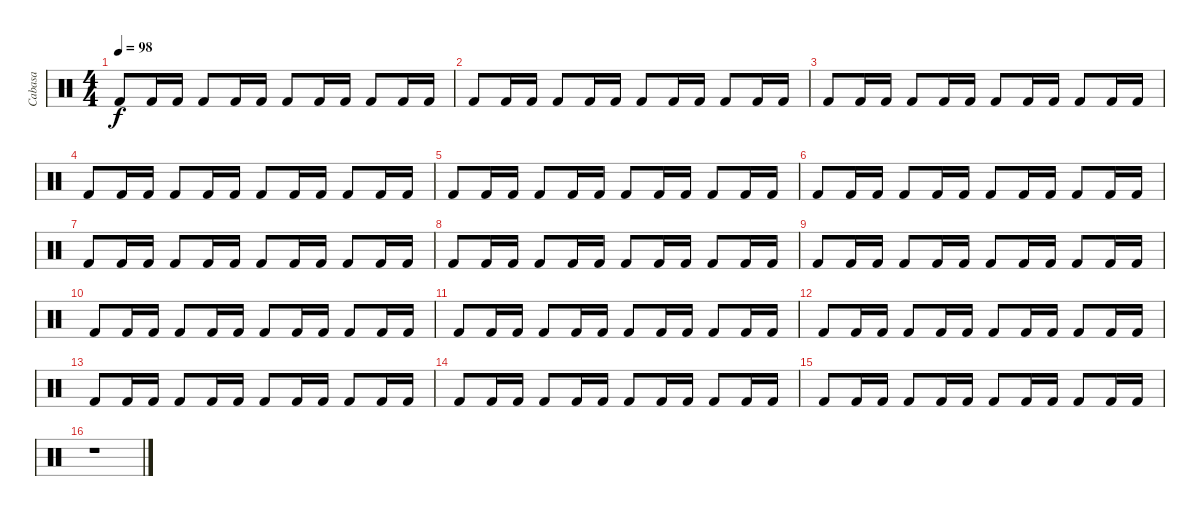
\track ("Cabasa" "Cabasa") {instrument percussion}
\staff {score}
\articulation defaults
\ts (4 4)
\tempo 98
\clef neutral
\ks c "Kick (hit) 2".8{dy f} "Kick (hit) 2".16 "Kick (hit) 2".16 "Kick (hit) 2".8 "Kick (hit) 2".16 "Kick (hit) 2".16 "Kick (hit) 2".8 "Kick (hit) 2".16 "Kick (hit) 2".16 "Kick (hit) 2".8 "Kick (hit) 2".16 "Kick (hit) 2".16
|
"Kick (hit) 2".8 "Kick (hit) 2".16 "Kick (hit) 2".16 "Kick (hit) 2".8 "Kick (hit) 2".16 "Kick (hit) 2".16 "Kick (hit) 2".8 "Kick (hit) 2".16 "Kick (hit) 2".16 "Kick (hit) 2".8 "Kick (hit) 2".16 "Kick (hit) 2".16 |
"Kick (hit) 2".8 "Kick (hit) 2".16 "Kick (hit) 2".16 "Kick (hit) 2".8 "Kick (hit) 2".16 "Kick (hit) 2".16 "Kick (hit) 2".8 "Kick (hit) 2".16 "Kick (hit) 2".16 "Kick (hit) 2".8 "Kick (hit) 2".16 "Kick (hit) 2".16 |
"Kick (hit) 2".8 "Kick (hit) 2".16 "Kick (hit) 2".16 "Kick (hit) 2".8 "Kick (hit) 2".16 "Kick (hit) 2".16 "Kick (hit) 2".8 "Kick (hit) 2".16 "Kick (hit) 2".16 "Kick (hit) 2".8 "Kick (hit) 2".16 "Kick (hit) 2".16 |
"Kick (hit) 2".8 "Kick (hit) 2".16 "Kick (hit) 2".16 "Kick (hit) 2".8 "Kick (hit) 2".16 "Kick (hit) 2".16 "Kick (hit) 2".8 "Kick (hit) 2".16 "Kick (hit) 2".16 "Kick (hit) 2".8 "Kick (hit) 2".16 "Kick (hit) 2".16 |
"Kick (hit) 2".8 "Kick (hit) 2".16 "Kick (hit) 2".16 "Kick (hit) 2".8 "Kick (hit) 2".16 "Kick (hit) 2".16 "Kick (hit) 2".8 "Kick (hit) 2".16 "Kick (hit) 2".16 "Kick (hit) 2".8 "Kick (hit) 2".16 "Kick (hit) 2".16 |
"Kick (hit) 2".8 "Kick (hit) 2".16 "Kick (hit) 2".16 "Kick (hit) 2".8 "Kick (hit) 2".16 "Kick (hit) 2".16 "Kick (hit) 2".8 "Kick (hit) 2".16 "Kick (hit) 2".16 "Kick (hit) 2".8 "Kick (hit) 2".16 "Kick (hit) 2".16 |
"Kick (hit) 2".8 "Kick (hit) 2".16 "Kick (hit) 2".16 "Kick (hit) 2".8 "Kick (hit) 2".16 "Kick (hit) 2".16 "Kick (hit) 2".8 "Kick (hit) 2".16 "Kick (hit) 2".16 "Kick (hit) 2".8 "Kick (hit) 2".16 "Kick (hit) 2".16 |
"Kick (hit) 2".8 "Kick (hit) 2".16 "Kick (hit) 2".16 "Kick (hit) 2".8 "Kick (hit) 2".16 "Kick (hit) 2".16 "Kick (hit) 2".8 "Kick (hit) 2".16 "Kick (hit) 2".16 "Kick (hit) 2".8 "Kick (hit) 2".16 "Kick (hit) 2".16 |
"Kick (hit) 2".8 "Kick (hit) 2".16 "Kick (hit) 2".16 "Kick (hit) 2".8 "Kick (hit) 2".16 "Kick (hit) 2".16 "Kick (hit) 2".8 "Kick (hit) 2".16 "Kick (hit) 2".16 "Kick (hit) 2".8 "Kick (hit) 2".16 "Kick (hit) 2".16 |
"Kick (hit) 2".8 "Kick (hit) 2".16 "Kick (hit) 2".16 "Kick (hit) 2".8 "Kick (hit) 2".16 "Kick (hit) 2".16 "Kick (hit) 2".8 "Kick (hit) 2".16 "Kick (hit) 2".16 "Kick (hit) 2".8 "Kick (hit) 2".16 "Kick (hit) 2".16 |
"Kick (hit) 2".8 "Kick (hit) 2".16 "Kick (hit) 2".16 "Kick (hit) 2".8 "Kick (hit) 2".16 "Kick (hit) 2".16 "Kick (hit) 2".8 "Kick (hit) 2".16 "Kick (hit) 2".16 "Kick (hit) 2".8 "Kick (hit) 2".16 "Kick (hit) 2".16 |
"Kick (hit) 2".8 "Kick (hit) 2".16 "Kick (hit) 2".16 "Kick (hit) 2".8 "Kick (hit) 2".16 "Kick (hit) 2".16 "Kick (hit) 2".8 "Kick (hit) 2".16 "Kick (hit) 2".16 "Kick (hit) 2".8 "Kick (hit) 2".16 "Kick (hit) 2".16 |
"Kick (hit) 2".8 "Kick (hit) 2".16 "Kick (hit) 2".16 "Kick (hit) 2".8 "Kick (hit) 2".16 "Kick (hit) 2".16 "Kick (hit) 2".8 "Kick (hit) 2".16 "Kick (hit) 2".16 "Kick (hit) 2".8 "Kick (hit) 2".16 "Kick (hit) 2".16 |
"Kick (hit) 2".8 "Kick (hit) 2".16 "Kick (hit) 2".16 "Kick (hit) 2".8 "Kick (hit) 2".16 "Kick (hit) 2".16 "Kick (hit) 2".8 "Kick (hit) 2".16 "Kick (hit) 2".16 "Kick (hit) 2".8 "Kick (hit) 2".16 "Kick (hit) 2".16 |
r.1
